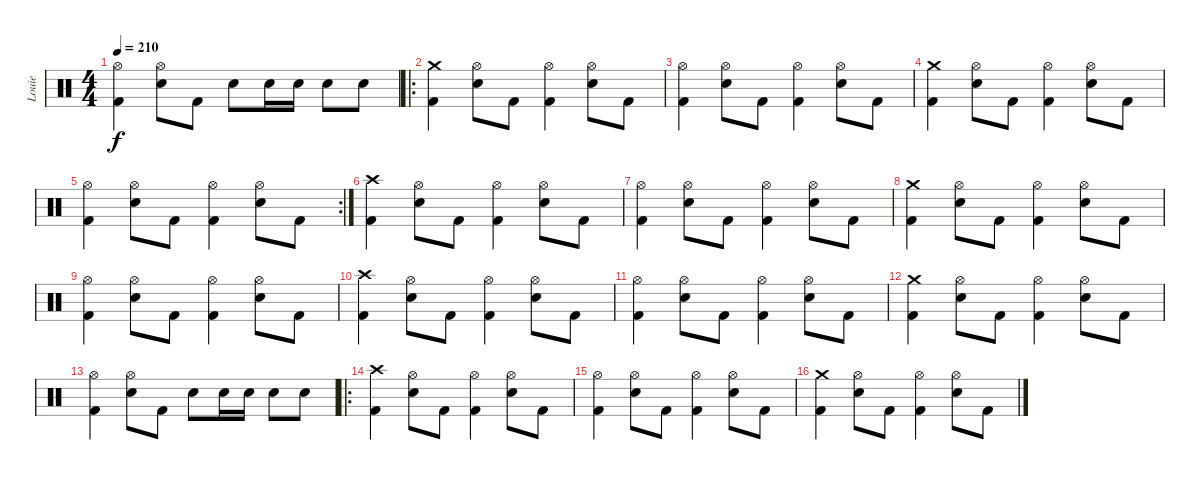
\track ("Louie" "Louie") {instrument percussion}
\staff {score}
\articulation defaults
\ts (4 4)
\tempo 210
\clef neutral
\ks c
("Hi-Hat (open)" "Kick (hit) 2").4{dy f} ("Hi-Hat (open)" "Snare (hit) 2").8 "Kick (hit) 2".8 "Snare (hit) 2".8 "Snare (hit) 2".16 "Snare (hit) 2".16 "Snare (hit) 2".8 "Snare (hit) 2".8 |
\ro
("Crash medium (hit)" "Kick (hit) 2").4 ("Hi-Hat (open)" "Snare (hit) 2").8 "Kick (hit) 2".8 ("Hi-Hat (open)" "Kick (hit) 2").4 ("Hi-Hat (open)" "Snare (hit) 2").8 "Kick (hit) 2".8 |
("Hi-Hat (open)" "Kick (hit) 2").4 ("Hi-Hat (open)" "Snare (hit) 2").8 "Kick (hit) 2".8 ("Hi-Hat (open)" "Kick (hit) 2").4 ("Hi-Hat (open)" "Snare (hit) 2").8 "Kick (hit) 2".8 |
("Crash medium (hit)" "Kick (hit) 2").4 ("Hi-Hat (open)" "Snare (hit) 2").8 "Kick (hit) 2".8 ("Hi-Hat (open)" "Kick (hit) 2").4 ("Hi-Hat (open)" "Snare (hit) 2").8 "Kick (hit) 2".8 |
\rc 2
("Hi-Hat (open)" "Kick (hit) 2").4 ("Hi-Hat (open)" "Snare (hit) 2").8 "Kick (hit) 2".8 ("Hi-Hat (open)" "Kick (hit) 2").4 ("Hi-Hat (open)" "Snare (hit) 2").8 "Kick (hit) 2".8 |
("Crash high (hit)" "Kick (hit) 2").4 ("Hi-Hat (open)" "Snare (hit) 2").8 "Kick (hit) 2".8 ("Hi-Hat (open)" "Kick (hit) 2").4 ("Hi-Hat (open)" "Snare (hit) 2").8 "Kick (hit) 2".8 |
("Hi-Hat (open)" "Kick (hit) 2").4 ("Hi-Hat (open)" "Snare (hit) 2").8 "Kick (hit) 2".8 ("Hi-Hat (open)" "Kick (hit) 2").4 ("Hi-Hat (open)" "Snare (hit) 2").8 "Kick (hit) 2".8 |
("Crash medium (hit)" "Kick (hit) 2").4 ("Hi-Hat (open)" "Snare (hit) 2").8 "Kick (hit) 2".8 ("Hi-Hat (open)" "Kick (hit) 2").4 ("Hi-Hat (open)" "Snare (hit) 2").8 "Kick (hit) 2".8 |
("Hi-Hat (open)" "Kick (hit) 2").4 ("Hi-Hat (open)" "Snare (hit) 2").8 "Kick (hit) 2".8 ("Hi-Hat (open)" "Kick (hit) 2").4 ("Hi-Hat (open)" "Snare (hit) 2").8 "Kick (hit) 2".8 |
("Crash high (hit)" "Kick (hit) 2").4 ("Hi-Hat (open)" "Snare (hit) 2").8 "Kick (hit) 2".8 ("Hi-Hat (open)" "Kick (hit) 2").4 ("Hi-Hat (open)" "Snare (hit) 2").8 "Kick (hit) 2".8 |
("Hi-Hat (open)" "Kick (hit) 2").4 ("Hi-Hat (open)" "Snare (hit) 2").8 "Kick (hit) 2".8 ("Hi-Hat (open)" "Kick (hit) 2").4 ("Hi-Hat (open)" "Snare (hit) 2").8 "Kick (hit) 2".8 |
("Crash medium (hit)" "Kick (hit) 2").4 ("Hi-Hat (open)" "Snare (hit) 2").8 "Kick (hit) 2".8 ("Hi-Hat (open)" "Kick (hit) 2").4 ("Hi-Hat (open)" "Snare (hit) 2").8 "Kick (hit) 2".8 |
("Hi-Hat (open)" "Kick (hit) 2").4 ("Hi-Hat (open)" "Snare (hit) 2").8 "Kick (hit) 2".8 "Snare (hit) 2".8 "Snare (hit) 2".16 "Snare (hit) 2".16 "Snare (hit) 2".8 "Snare (hit) 2".8 |
\ro
("Crash high (hit)" "Kick (hit) 2").4 ("Hi-Hat (open)" "Snare (hit) 2").8 "Kick (hit) 2".8 ("Hi-Hat (open)" "Kick (hit) 2").4 ("Hi-Hat (open)" "Snare (hit) 2").8 "Kick (hit) 2".8 |
("Hi-Hat (open)" "Kick (hit) 2").4 ("Hi-Hat (open)" "Snare (hit) 2").8 "Kick (hit) 2".8 ("Hi-Hat (open)" "Kick (hit) 2").4 ("Hi-Hat (open)" "Snare (hit) 2").8 "Kick (hit) 2".8 |
("Crash medium (hit)" "Kick (hit) 2").4 ("Hi-Hat (open)" "Snare (hit) 2").8 "Kick (hit) 2".8 ("Hi-Hat (open)" "Kick (hit) 2").4 ("Hi-Hat (open)" "Snare (hit) 2").8 "Kick (hit) 2".8
